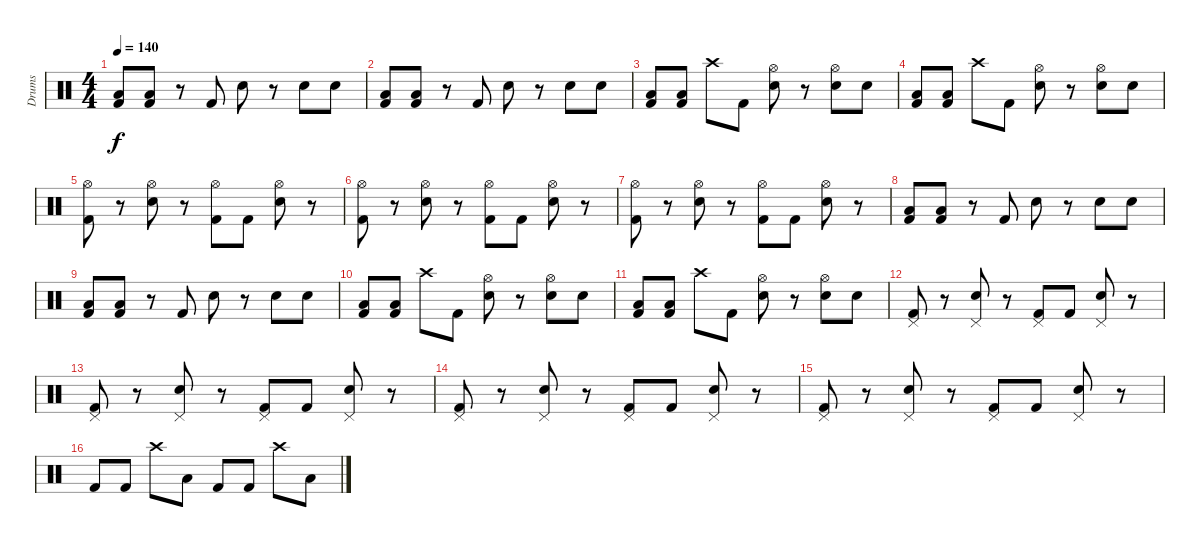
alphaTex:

\track ("Drums" "Drums") {instrument percussion}
\staff {score}
\articulation defaults
\ts (4 4)
\tempo 140
\clef neutral
\ks c
("Low Tom (hit)" "Kick (hit) 2").8{dy f} ("Low Tom (hit)" "Kick (hit) 2").8 r.8 "Kick (hit) 2".8 "Snare (hit) 2".8 r.8 "Snare (hit) 2".8 "Snare (hit) 2".8 |
("Low Tom (hit)" "Kick (hit) 2").8 ("Low Tom (hit)" "Kick (hit) 2").8 r.8 "Kick (hit) 2".8 "Snare (hit) 2".8 r.8 "Snare (hit) 2".8 "Snare (hit) 2".8 |
("Low Tom (hit)" "Kick (hit) 2").8 ("Low Tom (hit)" "Kick (hit) 2").8 "Crash high (hit)".8 "Kick (hit) 2".8 ("Hi-Hat (open)" "Snare (hit) 2").8 r.8 ("Hi-Hat (open)" "Snare (hit) 2").8 "Snare (hit) 2".8 |
("Low Tom (hit)" "Kick (hit) 2").8 ("Low Tom (hit)" "Kick (hit) 2").8 "Crash high (hit)".8 "Kick (hit) 2".8 ("Hi-Hat (open)" "Snare (hit) 2").8 r.8 ("Hi-Hat (open)" "Snare (hit) 2").8 "Snare (hit) 2".8 |
("Hi-Hat (open)" "Kick (hit) 2").8 r.8 ("Hi-Hat (open)" "Snare (hit) 2").8 r.8 ("Hi-Hat (open)" "Kick (hit) 2").8 "Kick (hit) 2".8 ("Hi-Hat (open)" "Snare (hit) 2").8 r.8 |
("Hi-Hat (open)" "Kick (hit) 2").8 r.8 ("Hi-Hat (open)" "Snare (hit) 2").8 r.8 ("Hi-Hat (open)" "Kick (hit) 2").8 "Kick (hit) 2".8 ("Hi-Hat (open)" "Snare (hit) 2").8 r.8 |
("Hi-Hat (open)" "Kick (hit) 2").8 r.8 ("Hi-Hat (open)" "Snare (hit) 2").8 r.8 ("Hi-Hat (open)" "Kick (hit) 2").8 "Kick (hit) 2".8 ("Hi-Hat (open)" "Snare (hit) 2").8 r.8 |
("Low Tom (hit)" "Kick (hit) 2").8 ("Low Tom (hit)" "Kick (hit) 2").8 r.8 "Kick (hit) 2".8 "Snare (hit) 2".8 r.8 "Snare (hit) 2".8 "Snare (hit) 2".8 |
("Low Tom (hit)" "Kick (hit) 2").8 ("Low Tom (hit)" "Kick (hit) 2").8 r.8 "Kick (hit) 2".8 "Snare (hit) 2".8 r.8 "Snare (hit) 2".8 "Snare (hit) 2".8 |
("Low Tom (hit)" "Kick (hit) 2").8 ("Low Tom (hit)" "Kick (hit) 2").8 "Crash high (hit)".8 "Kick (hit) 2".8 ("Hi-Hat (open)" "Snare (hit) 2").8 r.8 ("Hi-Hat (open)" "Snare (hit) 2").8 "Snare (hit) 2".8 |
("Low Tom (hit)" "Kick (hit) 2").8 ("Low Tom (hit)" "Kick (hit) 2").8 "Crash high (hit)".8 "Kick (hit) 2".8 ("Hi-Hat (open)" "Snare (hit) 2").8 r.8 ("Hi-Hat (open)" "Snare (hit) 2").8 "Snare (hit) 2".8 |
("Pedal Hi-Hat (hit)" "Kick (hit) 2").8 r.8 ("Pedal Hi-Hat (hit)" "Snare (hit) 2").8 r.8 ("Pedal Hi-Hat (hit)" "Kick (hit) 2").8 "Kick (hit) 2".8 ("Pedal Hi-Hat (hit)" "Snare (hit) 2").8 r.8 |
("Pedal Hi-Hat (hit)" "Kick (hit) 2").8 r.8 ("Pedal Hi-Hat (hit)" "Snare (hit) 2").8 r.8 ("Pedal Hi-Hat (hit)" "Kick (hit) 2").8 "Kick (hit) 2".8 ("Pedal Hi-Hat (hit)" "Snare (hit) 2").8 r.8 |
("Pedal Hi-Hat (hit)" "Kick (hit) 2").8 r.8 ("Pedal Hi-Hat (hit)" "Snare (hit) 2").8 r.8 ("Pedal Hi-Hat (hit)" "Kick (hit) 2").8 "Kick (hit) 2".8 ("Pedal Hi-Hat (hit)" "Snare (hit) 2").8 r.8 |
("Pedal Hi-Hat (hit)" "Kick (hit) 2").8 r.8 ("Pedal Hi-Hat (hit)" "Snare (hit) 2").8 r.8 ("Pedal Hi-Hat (hit)" "Kick (hit) 2").8 "Kick (hit) 2".8 ("Pedal Hi-Hat (hit)" "Snare (hit) 2").8 r.8 |
"Kick (hit) 2".8 "Kick (hit) 2".8 "Crash high (hit)".8 "Low Tom (hit)".8 "Kick (hit) 2".8 "Kick (hit) 2".8 "Crash high (hit)".8 "Low Tom (hit)".8
